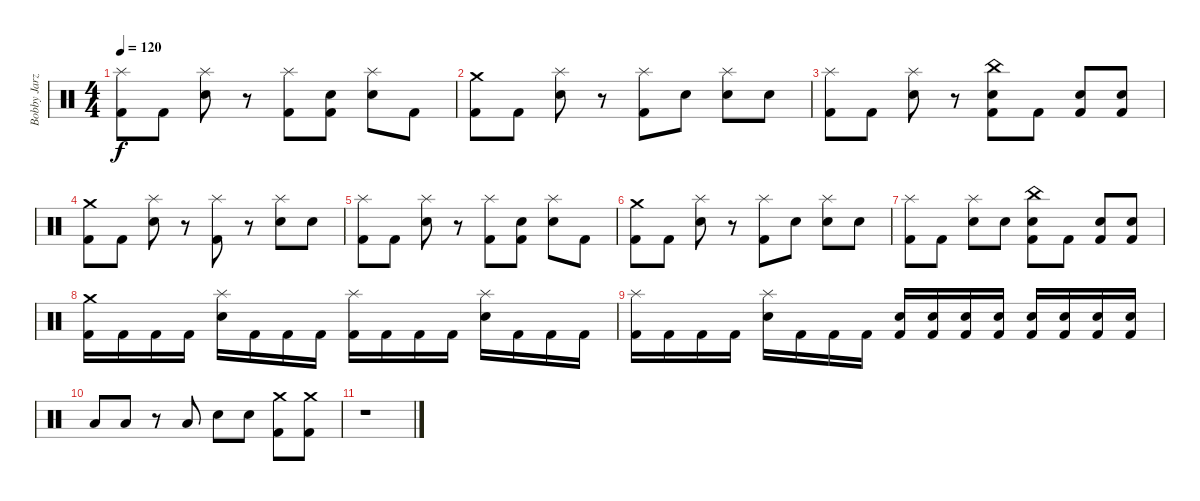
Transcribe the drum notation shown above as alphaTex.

\track ("Bobby Jarzombek - Drums" "Bobby Jarz") {instrument percussion}
\staff {score}
\articulation defaults
\ts (4 4)
\tempo 120
\clef neutral
\ks c
("Splash (hit)" "Kick (hit) 2").8{dy f} "Kick (hit) 2".8 ("Splash (hit)" "Electric Snare (hit)").8 r.8 ("Splash (hit)" "Kick (hit) 2").8 ("Snare (hit)" "Kick (hit) 2").8 ("Splash (hit)" "Electric Snare (hit)").8 "Kick (hit) 2".8 |
("Crash medium (hit)" "Kick (hit) 2").8 "Kick (hit) 2".8 ("Splash (hit)" "Electric Snare (hit)").8 r.8 ("Splash (hit)" "Kick (hit) 2").8 "Snare (hit)".8 ("Splash (hit)" "Electric Snare (hit)").8 "Snare (hit)".8 |
("Splash (hit)" "Kick (hit) 2").8 "Kick (hit) 2".8 ("Splash (hit)" "Electric Snare (hit)").8 r.8 ("China (hit)" "Electric Snare (hit)" "Kick (hit) 2").8 "Kick (hit) 2".8 ("Electric Snare (hit)" "Kick (hit) 2").8 ("Electric Snare (hit)" "Kick (hit) 2").8 |
("Crash medium (hit)" "Kick (hit) 2").8 "Kick (hit) 2".8 ("Splash (hit)" "Electric Snare (hit)").8 r.8 ("Splash (hit)" "Kick (hit) 2").8 r.8 ("Splash (hit)" "Electric Snare (hit)").8 "Snare (hit)".8 |
("Splash (hit)" "Kick (hit) 2").8 "Kick (hit) 2".8 ("Splash (hit)" "Electric Snare (hit)").8 r.8 ("Splash (hit)" "Kick (hit) 2").8 ("Snare (hit)" "Kick (hit) 2").8 ("Splash (hit)" "Electric Snare (hit)").8 "Kick (hit) 2".8 |
("Crash medium (hit)" "Kick (hit) 2").8 "Kick (hit) 2".8 ("Splash (hit)" "Electric Snare (hit)").8 r.8 ("Splash (hit)" "Kick (hit) 2").8 "Snare (hit)".8 ("Splash (hit)" "Electric Snare (hit)").8 "Snare (hit)".8 |
("Splash (hit)" "Kick (hit) 2").8 "Kick (hit) 2".8 ("Splash (hit)" "Electric Snare (hit)").8 "Snare (hit)".8 ("China (hit)" "Electric Snare (hit)" "Kick (hit) 2").8 "Kick (hit) 2".8 ("Electric Snare (hit)" "Kick (hit) 2").8 ("Electric Snare (hit)" "Kick (hit) 2").8 |
("Crash medium (hit)" "Kick (hit) 2").16 "Kick (hit) 2".16 "Kick (hit) 2".16 "Kick (hit) 2".16 ("Splash (hit)" "Electric Snare (hit)").16 "Kick (hit) 2".16 "Kick (hit) 2".16 "Kick (hit) 2".16 ("Splash (hit)" "Kick (hit) 2").16 "Kick (hit) 2".16 "Kick (hit) 2".16 "Kick (hit) 2".16 ("Splash (hit)" "Electric Snare (hit)").16 "Kick (hit) 2".16 "Kick (hit) 2".16 "Kick (hit) 2".16 |
("Splash (hit)" "Kick (hit) 2").16 "Kick (hit) 2".16 "Kick (hit) 2".16 "Kick (hit) 2".16 ("Splash (hit)" "Electric Snare (hit)").16 "Kick (hit) 2".16 "Kick (hit) 2".16 "Kick (hit) 2".16 ("Electric Snare (hit)" "Kick (hit) 2").16 ("Electric Snare (hit)" "Kick (hit) 2").16 ("Electric Snare (hit)" "Kick (hit) 2").16 ("Electric Snare (hit)" "Kick (hit) 2").16 ("Electric Snare (hit)" "Kick (hit) 2").16 ("Electric Snare (hit)" "Kick (hit) 2").16 ("Electric Snare (hit)" "Kick (hit) 2").16 ("Electric Snare (hit)" "Kick (hit) 2").16 |
"Low Floor Tom (hit)".8 "Low Floor Tom (hit)".8 r.8 "Low Floor Tom (hit)".8 "Electric Snare (hit)".8 "Snare (hit)".8 ("Crash medium (hit)" "Kick (hit) 2").8 ("Crash medium (hit)" "Kick (hit) 2").8 |
r.1
